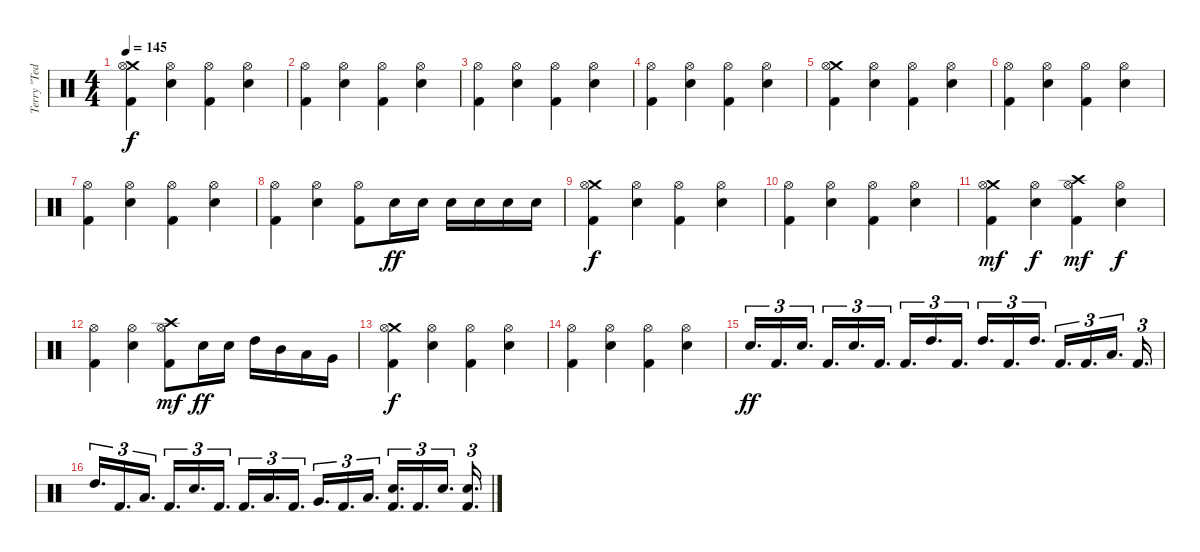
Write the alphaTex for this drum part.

\track ("Terry \"Ted\" Bozzio" "Terry \"Ted") {instrument percussion}
\staff {score}
\articulation defaults
\ts (4 4)
\tempo 145
\clef neutral
\ks c
("Crash medium (hit)" "Hi-Hat (open)" "Kick (hit) 2").4{dy f} ("Hi-Hat (open)" "Electric Snare (hit)").4{beam merge} ("Hi-Hat (open)" "Kick (hit) 2").4 ("Hi-Hat (open)" "Electric Snare (hit)").4 |
("Hi-Hat (open)" "Kick (hit) 2").4{beam merge} ("Hi-Hat (open)" "Electric Snare (hit)").4 ("Hi-Hat (open)" "Kick (hit) 2").4 ("Hi-Hat (open)" "Electric Snare (hit)").4 |
("Hi-Hat (open)" "Kick (hit) 2").4 ("Hi-Hat (open)" "Electric Snare (hit)").4{beam merge} ("Hi-Hat (open)" "Kick (hit) 2").4 ("Hi-Hat (open)" "Electric Snare (hit)").4 |
("Hi-Hat (open)" "Kick (hit) 2").4{beam merge} ("Hi-Hat (open)" "Electric Snare (hit)").4 ("Hi-Hat (open)" "Kick (hit) 2").4 ("Hi-Hat (open)" "Electric Snare (hit)").4 |
("Crash medium (hit)" "Hi-Hat (open)" "Kick (hit) 2").4 ("Hi-Hat (open)" "Electric Snare (hit)").4{beam merge} ("Hi-Hat (open)" "Kick (hit) 2").4 ("Hi-Hat (open)" "Electric Snare (hit)").4 |
("Hi-Hat (open)" "Kick (hit) 2").4{beam merge} ("Hi-Hat (open)" "Electric Snare (hit)").4 ("Hi-Hat (open)" "Kick (hit) 2").4 ("Hi-Hat (open)" "Electric Snare (hit)").4 |
("Hi-Hat (open)" "Kick (hit) 2").4 ("Hi-Hat (open)" "Electric Snare (hit)").4{beam merge} ("Hi-Hat (open)" "Kick (hit) 2").4 ("Hi-Hat (open)" "Electric Snare (hit)").4 |
("Hi-Hat (open)" "Kick (hit) 2").4{beam merge} ("Hi-Hat (open)" "Electric Snare (hit)").4 ("Hi-Hat (open)" "Kick (hit) 2").8 "Electric Snare (hit)".16{dy ff} "Electric Snare (hit)".16 "Electric Snare (hit)".16 "Electric Snare (hit)".16{beam merge} "Electric Snare (hit)".16 "Electric Snare (hit)".16 |
("Crash medium (hit)" "Hi-Hat (open)" "Kick (hit) 2").4{dy f} ("Hi-Hat (open)" "Electric Snare (hit)").4{beam merge} ("Hi-Hat (open)" "Kick (hit) 2").4 ("Hi-Hat (open)" "Electric Snare (hit)").4 |
("Hi-Hat (open)" "Kick (hit) 2").4{beam merge} ("Hi-Hat (open)" "Electric Snare (hit)").4 ("Hi-Hat (open)" "Kick (hit) 2").4 ("Hi-Hat (open)" "Electric Snare (hit)").4 |
("Crash medium (hit)" "Hi-Hat (open)" "Kick (hit) 2").4{dy mf} ("Hi-Hat (open)" "Electric Snare (hit)").4{dy f beam merge} ("Crash high (hit)" "Hi-Hat (open)" "Kick (hit) 2").4{dy mf} ("Hi-Hat (open)" "Electric Snare (hit)").4{dy f} |
("Hi-Hat (open)" "Kick (hit) 2").4{beam merge} ("Hi-Hat (open)" "Electric Snare (hit)").4 ("Crash high (hit)" "Hi-Hat (open)" "Kick (hit) 2").8{dy mf} "Electric Snare (hit)".16{dy ff} "Electric Snare (hit)".16 "High Tom (hit)".16 "Mid Tom (hit)".16{beam merge} "Low Tom (hit)".16 "Very Low Tom (hit)".16 |
("Crash medium (hit)" "Hi-Hat (open)" "Kick (hit) 2").4{dy f} ("Hi-Hat (open)" "Electric Snare (hit)").4{beam merge} ("Hi-Hat (open)" "Kick (hit) 2").4 ("Hi-Hat (open)" "Electric Snare (hit)").4 |
("Hi-Hat (open)" "Kick (hit) 2").4{beam merge} ("Hi-Hat (open)" "Electric Snare (hit)").4 ("Hi-Hat (open)" "Kick (hit) 2").4 ("Hi-Hat (open)" "Electric Snare (hit)").4 |
"Electric Snare (hit)".16{d tu (3 2) dy ff} "Kick (hit) 2".16{d tu (3 2)} "Electric Snare (hit)".16{d tu (3 2)} "Kick (hit) 2".16{d tu (3 2)} "Electric Snare (hit)".16{d tu (3 2) beam merge} "Kick (hit) 2".16{d tu (3 2)} "Kick (hit) 2".16{d tu (3 2)} "High Tom (hit)".16{d tu (3 2)} "Kick (hit) 2".16{d tu (3 2)} "High Tom (hit)".16{d tu (3 2)} "Kick (hit) 2".16{d tu (3 2)} "High Tom (hit)".16{d tu (3 2)} "Kick (hit) 2".16{d tu (3 2)} "Kick (hit) 2".16{d tu (3 2) beam merge} "Low Tom (hit)".16{d tu (3 2)} "Kick (hit) 2".16{d tu (3 2)} |
"High Tom (hit)".16{d tu (3 2)} "Kick (hit) 2".16{d tu (3 2)} "Low Tom (hit)".16{d tu (3 2)} "Kick (hit) 2".16{d tu (3 2)} "Electric Snare (hit)".16{d tu (3 2) beam merge} "Kick (hit) 2".16{d tu (3 2)} "Kick (hit) 2".16{d tu (3 2)} "Low Tom (hit)".16{d tu (3 2)} "Kick (hit) 2".16{d tu (3 2)} "Very Low Tom (hit)".16{d tu (3 2)} "Kick (hit) 2".16{d tu (3 2)} "Low Floor Tom (hit)".16{d tu (3 2)} ("Electric Snare (hit)" "Kick (hit) 2").16{d tu (3 2)} "Kick (hit) 2".16{d tu (3 2) beam merge} "Electric Snare (hit)".16{d tu (3 2)} ("Electric Snare (hit)" "Kick (hit) 2").16{d tu (3 2)}
